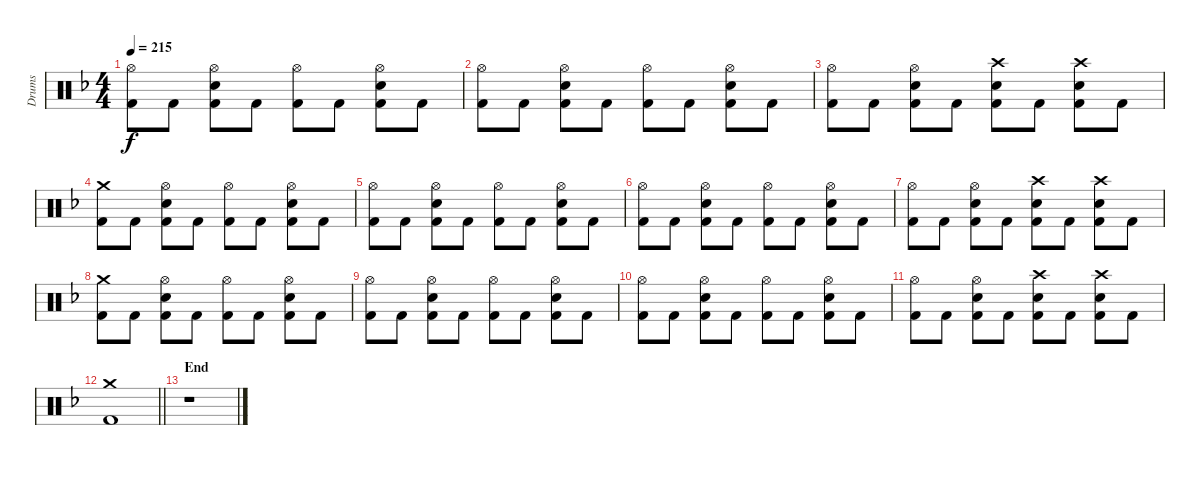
\track ("Drums" "Drums") {instrument percussion}
\staff {score}
\articulation defaults
\ts (4 4)
\tempo 215
\clef neutral
\ks f
("Hi-Hat (open)" "Kick (hit) 2").8{dy f} "Kick (hit) 2".8 ("Hi-Hat (open)" "Snare (hit) 2" "Kick (hit) 2").8 "Kick (hit) 2".8 ("Hi-Hat (open)" "Kick (hit) 2").8 "Kick (hit) 2".8 ("Hi-Hat (open)" "Snare (hit) 2" "Kick (hit) 2").8 "Kick (hit) 2".8 |
("Hi-Hat (open)" "Kick (hit) 2").8 "Kick (hit) 2".8 ("Hi-Hat (open)" "Snare (hit) 2" "Kick (hit) 2").8 "Kick (hit) 2".8 ("Hi-Hat (open)" "Kick (hit) 2").8 "Kick (hit) 2".8 ("Hi-Hat (open)" "Snare (hit) 2" "Kick (hit) 2").8 "Kick (hit) 2".8 |
("Hi-Hat (open)" "Kick (hit) 2").8 "Kick (hit) 2".8 ("Hi-Hat (open)" "Snare (hit) 2" "Kick (hit) 2").8 "Kick (hit) 2".8 ("Crash high (hit)" "Snare (hit) 2" "Kick (hit) 2").8 "Kick (hit) 2".8 ("Crash high (hit)" "Snare (hit) 2" "Kick (hit) 2").8 "Kick (hit) 2".8 |
("Crash medium (hit)" "Kick (hit) 2").8 "Kick (hit) 2".8 ("Hi-Hat (open)" "Snare (hit) 2" "Kick (hit) 2").8 "Kick (hit) 2".8 ("Hi-Hat (open)" "Kick (hit) 2").8 "Kick (hit) 2".8 ("Hi-Hat (open)" "Snare (hit) 2" "Kick (hit) 2").8 "Kick (hit) 2".8 |
("Hi-Hat (open)" "Kick (hit) 2").8 "Kick (hit) 2".8 ("Hi-Hat (open)" "Snare (hit) 2" "Kick (hit) 2").8 "Kick (hit) 2".8 ("Hi-Hat (open)" "Kick (hit) 2").8 "Kick (hit) 2".8 ("Hi-Hat (open)" "Snare (hit) 2" "Kick (hit) 2").8 "Kick (hit) 2".8 |
("Hi-Hat (open)" "Kick (hit) 2").8 "Kick (hit) 2".8 ("Hi-Hat (open)" "Snare (hit) 2" "Kick (hit) 2").8 "Kick (hit) 2".8 ("Hi-Hat (open)" "Kick (hit) 2").8 "Kick (hit) 2".8 ("Hi-Hat (open)" "Snare (hit) 2" "Kick (hit) 2").8 "Kick (hit) 2".8 |
("Hi-Hat (open)" "Kick (hit) 2").8 "Kick (hit) 2".8 ("Hi-Hat (open)" "Snare (hit) 2" "Kick (hit) 2").8 "Kick (hit) 2".8 ("Crash high (hit)" "Snare (hit) 2" "Kick (hit) 2").8 "Kick (hit) 2".8 ("Crash high (hit)" "Snare (hit) 2" "Kick (hit) 2").8 "Kick (hit) 2".8 |
("Crash medium (hit)" "Kick (hit) 2").8 "Kick (hit) 2".8 ("Hi-Hat (open)" "Snare (hit) 2" "Kick (hit) 2").8 "Kick (hit) 2".8 ("Hi-Hat (open)" "Kick (hit) 2").8 "Kick (hit) 2".8 ("Hi-Hat (open)" "Snare (hit) 2" "Kick (hit) 2").8 "Kick (hit) 2".8 |
("Hi-Hat (open)" "Kick (hit) 2").8 "Kick (hit) 2".8 ("Hi-Hat (open)" "Snare (hit) 2" "Kick (hit) 2").8 "Kick (hit) 2".8 ("Hi-Hat (open)" "Kick (hit) 2").8 "Kick (hit) 2".8 ("Hi-Hat (open)" "Snare (hit) 2" "Kick (hit) 2").8 "Kick (hit) 2".8 |
("Hi-Hat (open)" "Kick (hit) 2").8 "Kick (hit) 2".8 ("Hi-Hat (open)" "Snare (hit) 2" "Kick (hit) 2").8 "Kick (hit) 2".8 ("Hi-Hat (open)" "Kick (hit) 2").8 "Kick (hit) 2".8 ("Hi-Hat (open)" "Snare (hit) 2" "Kick (hit) 2").8 "Kick (hit) 2".8 |
("Hi-Hat (open)" "Kick (hit) 2").8 "Kick (hit) 2".8 ("Hi-Hat (open)" "Snare (hit) 2" "Kick (hit) 2").8 "Kick (hit) 2".8 ("Crash high (hit)" "Snare (hit) 2" "Kick (hit) 2").8 "Kick (hit) 2".8 ("Crash high (hit)" "Snare (hit) 2" "Kick (hit) 2").8 "Kick (hit) 2".8 |
\barLineRight lightlight
("Crash medium (hit)" "Kick (hit) 2").1 |
\section ("" "End")
r.1
